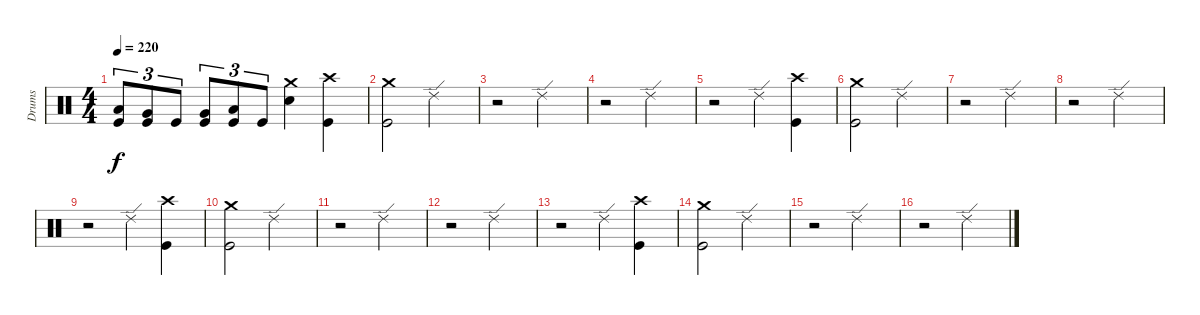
\track ("Drums" "Drums") {instrument percussion}
\staff {score}
\articulation defaults
\ts (4 4)
\tempo 220
\clef neutral
\ks c
("Low Tom (hit)" "Kick (hit)").8{tu (3 2) dy f} ("Very Low Tom (hit)" "Kick (hit)").8{tu (3 2)} "Kick (hit)".8{tu (3 2)} ("Very Low Tom (hit)" "Kick (hit)").8{tu (3 2)} ("Low Floor Tom (hit)" "Kick (hit)").8{tu (3 2)} "Kick (hit)".8{tu (3 2)} ("Crash medium (hit)" "Electric Snare (hit)").4 ("Crash high (hit)" "Kick (hit)").4 |
("Crash medium (hit)" "Kick (hit)").2 "Ride (edge) 2".2 |
r.2 "Ride (edge) 2".2 |
r.2 "Ride (edge) 2".2 |
r.2 "Ride (edge) 2".4 ("Crash high (hit)" "Kick (hit)").4 |
("Crash medium (hit)" "Kick (hit)").2 "Ride (edge) 2".2 |
r.2 "Ride (edge) 2".2 |
r.2 "Ride (edge) 2".2 |
r.2 "Ride (edge) 2".4 ("Crash high (hit)" "Kick (hit)").4 |
("Crash medium (hit)" "Kick (hit)").2 "Ride (edge) 2".2 |
r.2 "Ride (edge) 2".2 |
r.2 "Ride (edge) 2".2 |
r.2 "Ride (edge) 2".4 ("Crash high (hit)" "Kick (hit)").4 |
("Crash medium (hit)" "Kick (hit)").2 "Ride (edge) 2".2 |
r.2 "Ride (edge) 2".2 |
r.2 "Ride (edge) 2".2
